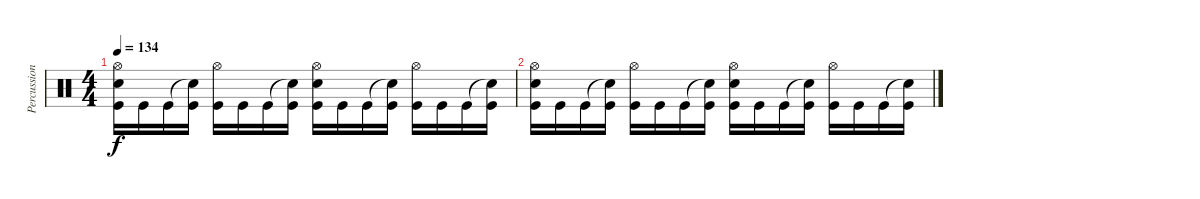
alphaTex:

\track ("Percussion" "Percussion") {instrument percussion}
\staff {score}
\articulation defaults
\ts (4 4)
\tempo 134
\clef neutral
\ks c
("Hi-Hat (open)" "Electric Snare (hit)" "Kick (hit)").16{dy f} "Kick (hit)".16 "Kick (hit)".16 ("Snare (hit)"{t} "Kick (hit)").16 ("Hi-Hat (open)" "Kick (hit)").16 "Kick (hit)".16 "Kick (hit)".16 ("Snare (hit)"{t} "Kick (hit)").16 ("Hi-Hat (open)" "Electric Snare (hit)" "Kick (hit)").16 "Kick (hit)".16 "Kick (hit)".16 ("Snare (hit)"{t} "Kick (hit)").16 ("Hi-Hat (open)" "Kick (hit)").16 "Kick (hit)".16 "Kick (hit)".16 ("Snare (hit)"{t} "Kick (hit)").16 |
("Hi-Hat (open)" "Electric Snare (hit)" "Kick (hit)").16 "Kick (hit)".16 "Kick (hit)".16 ("Snare (hit)"{t} "Kick (hit)").16 ("Hi-Hat (open)" "Kick (hit)").16 "Kick (hit)".16 "Kick (hit)".16 ("Snare (hit)"{t} "Kick (hit)").16 ("Hi-Hat (open)" "Electric Snare (hit)" "Kick (hit)").16 "Kick (hit)".16 "Kick (hit)".16 ("Snare (hit)"{t} "Kick (hit)").16 ("Hi-Hat (open)" "Kick (hit)").16 "Kick (hit)".16 "Kick (hit)".16 ("Snare (hit)"{t} "Kick (hit)").16
